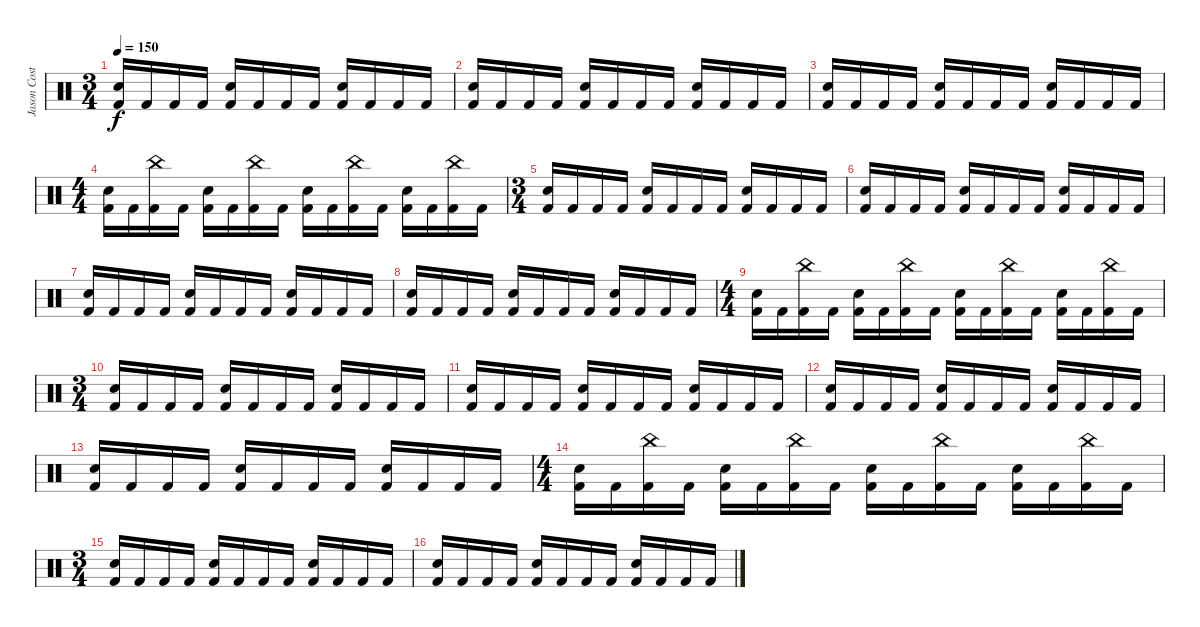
\track ("Jason Costa" "Jason Cost") {instrument percussion}
\staff {score}
\articulation defaults
\ts (3 4)
\tempo 150
\clef neutral
\ks c
("Electric Snare (hit)" "Kick (hit) 2").16{dy f} "Kick (hit) 2".16 "Kick (hit) 2".16 "Kick (hit) 2".16 ("Electric Snare (hit)" "Kick (hit) 2").16 "Kick (hit) 2".16 "Kick (hit) 2".16 "Kick (hit) 2".16 ("Electric Snare (hit)" "Kick (hit) 2").16 "Kick (hit) 2".16 "Kick (hit) 2".16 "Kick (hit) 2".16 |
("Electric Snare (hit)" "Kick (hit) 2").16 "Kick (hit) 2".16 "Kick (hit) 2".16 "Kick (hit) 2".16 ("Electric Snare (hit)" "Kick (hit) 2").16 "Kick (hit) 2".16 "Kick (hit) 2".16 "Kick (hit) 2".16 ("Electric Snare (hit)" "Kick (hit) 2").16 "Kick (hit) 2".16 "Kick (hit) 2".16 "Kick (hit) 2".16 |
("Electric Snare (hit)" "Kick (hit) 2").16 "Kick (hit) 2".16 "Kick (hit) 2".16 "Kick (hit) 2".16 ("Electric Snare (hit)" "Kick (hit) 2").16 "Kick (hit) 2".16 "Kick (hit) 2".16 "Kick (hit) 2".16 ("Electric Snare (hit)" "Kick (hit) 2").16 "Kick (hit) 2".16 "Kick (hit) 2".16 "Kick (hit) 2".16 |
\ts (4 4)
("Electric Snare (hit)" "Kick (hit) 2").16 "Kick (hit) 2".16 ("China (hit)" "Kick (hit) 2").16 "Kick (hit) 2".16 ("Electric Snare (hit)" "Kick (hit) 2").16 "Kick (hit) 2".16 ("China (hit)" "Kick (hit) 2").16 "Kick (hit) 2".16 ("Electric Snare (hit)" "Kick (hit) 2").16 "Kick (hit) 2".16 ("China (hit)" "Kick (hit) 2").16 "Kick (hit) 2".16 ("Electric Snare (hit)" "Kick (hit) 2").16 "Kick (hit) 2".16 ("China (hit)" "Kick (hit) 2").16 "Kick (hit) 2".16 |
\ts (3 4)
("Electric Snare (hit)" "Kick (hit) 2").16 "Kick (hit) 2".16 "Kick (hit) 2".16 "Kick (hit) 2".16 ("Electric Snare (hit)" "Kick (hit) 2").16 "Kick (hit) 2".16 "Kick (hit) 2".16 "Kick (hit) 2".16 ("Electric Snare (hit)" "Kick (hit) 2").16 "Kick (hit) 2".16 "Kick (hit) 2".16 "Kick (hit) 2".16 |
("Electric Snare (hit)" "Kick (hit) 2").16 "Kick (hit) 2".16 "Kick (hit) 2".16 "Kick (hit) 2".16 ("Electric Snare (hit)" "Kick (hit) 2").16 "Kick (hit) 2".16 "Kick (hit) 2".16 "Kick (hit) 2".16 ("Electric Snare (hit)" "Kick (hit) 2").16 "Kick (hit) 2".16 "Kick (hit) 2".16 "Kick (hit) 2".16 |
("Electric Snare (hit)" "Kick (hit) 2").16 "Kick (hit) 2".16 "Kick (hit) 2".16 "Kick (hit) 2".16 ("Electric Snare (hit)" "Kick (hit) 2").16 "Kick (hit) 2".16 "Kick (hit) 2".16 "Kick (hit) 2".16 ("Electric Snare (hit)" "Kick (hit) 2").16 "Kick (hit) 2".16 "Kick (hit) 2".16 "Kick (hit) 2".16 |
("Electric Snare (hit)" "Kick (hit) 2").16 "Kick (hit) 2".16 "Kick (hit) 2".16 "Kick (hit) 2".16 ("Electric Snare (hit)" "Kick (hit) 2").16 "Kick (hit) 2".16 "Kick (hit) 2".16 "Kick (hit) 2".16 ("Electric Snare (hit)" "Kick (hit) 2").16 "Kick (hit) 2".16 "Kick (hit) 2".16 "Kick (hit) 2".16 |
\ts (4 4)
("Electric Snare (hit)" "Kick (hit) 2").16 "Kick (hit) 2".16 ("China (hit)" "Kick (hit) 2").16 "Kick (hit) 2".16 ("Electric Snare (hit)" "Kick (hit) 2").16 "Kick (hit) 2".16 ("China (hit)" "Kick (hit) 2").16 "Kick (hit) 2".16 ("Electric Snare (hit)" "Kick (hit) 2").16 "Kick (hit) 2".16 ("China (hit)" "Kick (hit) 2").16 "Kick (hit) 2".16 ("Electric Snare (hit)" "Kick (hit) 2").16 "Kick (hit) 2".16 ("China (hit)" "Kick (hit) 2").16 "Kick (hit) 2".16 |
\ts (3 4)
("Electric Snare (hit)" "Kick (hit) 2").16 "Kick (hit) 2".16 "Kick (hit) 2".16 "Kick (hit) 2".16 ("Electric Snare (hit)" "Kick (hit) 2").16 "Kick (hit) 2".16 "Kick (hit) 2".16 "Kick (hit) 2".16 ("Electric Snare (hit)" "Kick (hit) 2").16 "Kick (hit) 2".16 "Kick (hit) 2".16 "Kick (hit) 2".16 |
("Electric Snare (hit)" "Kick (hit) 2").16 "Kick (hit) 2".16 "Kick (hit) 2".16 "Kick (hit) 2".16 ("Electric Snare (hit)" "Kick (hit) 2").16 "Kick (hit) 2".16 "Kick (hit) 2".16 "Kick (hit) 2".16 ("Electric Snare (hit)" "Kick (hit) 2").16 "Kick (hit) 2".16 "Kick (hit) 2".16 "Kick (hit) 2".16 |
("Electric Snare (hit)" "Kick (hit) 2").16 "Kick (hit) 2".16 "Kick (hit) 2".16 "Kick (hit) 2".16 ("Electric Snare (hit)" "Kick (hit) 2").16 "Kick (hit) 2".16 "Kick (hit) 2".16 "Kick (hit) 2".16 ("Electric Snare (hit)" "Kick (hit) 2").16 "Kick (hit) 2".16 "Kick (hit) 2".16 "Kick (hit) 2".16 |
("Electric Snare (hit)" "Kick (hit) 2").16 "Kick (hit) 2".16 "Kick (hit) 2".16 "Kick (hit) 2".16 ("Electric Snare (hit)" "Kick (hit) 2").16 "Kick (hit) 2".16 "Kick (hit) 2".16 "Kick (hit) 2".16 ("Electric Snare (hit)" "Kick (hit) 2").16 "Kick (hit) 2".16 "Kick (hit) 2".16 "Kick (hit) 2".16 |
\ts (4 4)
("Electric Snare (hit)" "Kick (hit) 2").16 "Kick (hit) 2".16 ("China (hit)" "Kick (hit) 2").16 "Kick (hit) 2".16 ("Electric Snare (hit)" "Kick (hit) 2").16 "Kick (hit) 2".16 ("China (hit)" "Kick (hit) 2").16 "Kick (hit) 2".16 ("Electric Snare (hit)" "Kick (hit) 2").16 "Kick (hit) 2".16 ("China (hit)" "Kick (hit) 2").16 "Kick (hit) 2".16 ("Electric Snare (hit)" "Kick (hit) 2").16 "Kick (hit) 2".16 ("China (hit)" "Kick (hit) 2").16 "Kick (hit) 2".16 |
\ts (3 4)
("Electric Snare (hit)" "Kick (hit) 2").16 "Kick (hit) 2".16 "Kick (hit) 2".16 "Kick (hit) 2".16 ("Electric Snare (hit)" "Kick (hit) 2").16 "Kick (hit) 2".16 "Kick (hit) 2".16 "Kick (hit) 2".16 ("Electric Snare (hit)" "Kick (hit) 2").16 "Kick (hit) 2".16 "Kick (hit) 2".16 "Kick (hit) 2".16 |
("Electric Snare (hit)" "Kick (hit) 2").16 "Kick (hit) 2".16 "Kick (hit) 2".16 "Kick (hit) 2".16 ("Electric Snare (hit)" "Kick (hit) 2").16 "Kick (hit) 2".16 "Kick (hit) 2".16 "Kick (hit) 2".16 ("Electric Snare (hit)" "Kick (hit) 2").16 "Kick (hit) 2".16 "Kick (hit) 2".16 "Kick (hit) 2".16
